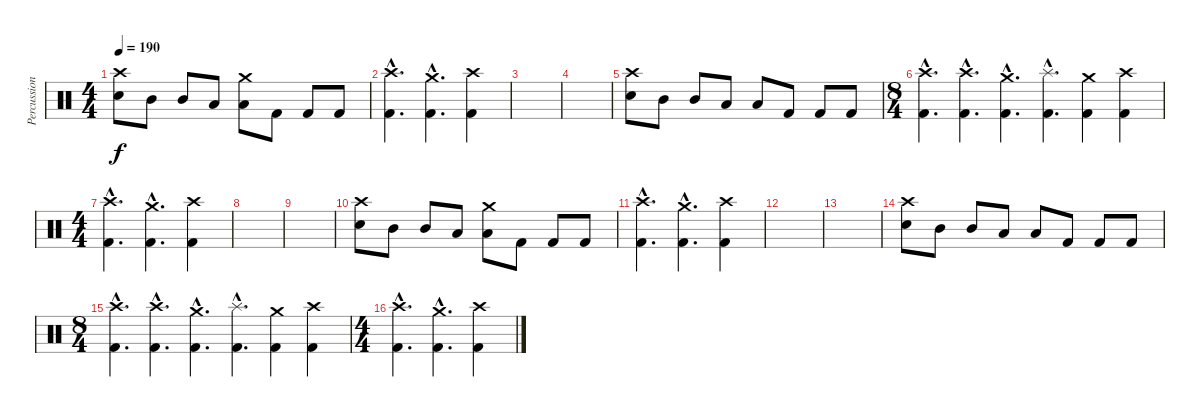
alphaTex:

\track ("Percussion" "Percussion") {instrument percussion}
\staff {score}
\articulation defaults
\ts (4 4)
\tempo 190
\clef neutral
\ks c
("Crash high (hit)" "Electric Snare (hit)").8{dy f} "Mid Tom (hit)".8 "Mid Tom (hit)".8 "Low Tom (hit)".8 ("Crash medium (hit)" "Low Tom (hit)").8 "Kick (hit) 2".8 "Kick (hit) 2".8 "Kick (hit) 2".8 |
("Crash high (hit)"{hac} "Kick (hit) 2"{hac}).4{d} ("Crash medium (hit)"{hac} "Kick (hit) 2"{hac}).4{d} ("Crash high (hit)" "Kick (hit) 2").4 |
|
|
("Crash high (hit)" "Electric Snare (hit)").8 "Mid Tom (hit)".8 "Mid Tom (hit)".8 "Low Tom (hit)".8 "Low Tom (hit)".8 "Kick (hit) 2".8 "Kick (hit) 2".8 "Kick (hit) 2".8 |
\ts (8 4)
("Crash high (hit)"{hac} "Kick (hit) 2"{hac}).4{d} ("Crash high (hit)"{hac} "Kick (hit) 2"{hac}).4{d} ("Crash medium (hit)"{hac} "Kick (hit) 2"{hac}).4{d} ("Splash (hit)"{hac} "Kick (hit) 2"{hac}).4{d} ("Crash medium (hit)" "Kick (hit) 2").4 ("Crash high (hit)" "Kick (hit) 2").4 |
\ts (4 4)
("Crash high (hit)"{hac} "Kick (hit) 2"{hac}).4{d} ("Crash medium (hit)"{hac} "Kick (hit) 2"{hac}).4{d} ("Crash high (hit)" "Kick (hit) 2").4 |
|
|
("Crash high (hit)" "Electric Snare (hit)").8 "Mid Tom (hit)".8 "Mid Tom (hit)".8 "Low Tom (hit)".8 ("Crash medium (hit)" "Low Tom (hit)").8 "Kick (hit) 2".8 "Kick (hit) 2".8 "Kick (hit) 2".8 |
("Crash high (hit)"{hac} "Kick (hit) 2"{hac}).4{d} ("Crash medium (hit)"{hac} "Kick (hit) 2"{hac}).4{d} ("Crash high (hit)" "Kick (hit) 2").4 |
|
|
("Crash high (hit)" "Electric Snare (hit)").8 "Mid Tom (hit)".8 "Mid Tom (hit)".8 "Low Tom (hit)".8 "Low Tom (hit)".8 "Kick (hit) 2".8 "Kick (hit) 2".8 "Kick (hit) 2".8 |
\ts (8 4)
("Crash high (hit)"{hac} "Kick (hit) 2"{hac}).4{d} ("Crash high (hit)"{hac} "Kick (hit) 2"{hac}).4{d} ("Crash medium (hit)"{hac} "Kick (hit) 2"{hac}).4{d} ("Splash (hit)"{hac} "Kick (hit) 2"{hac}).4{d} ("Crash medium (hit)" "Kick (hit) 2").4 ("Crash high (hit)" "Kick (hit) 2").4 |
\ts (4 4)
("Crash high (hit)"{hac} "Kick (hit) 2"{hac}).4{d} ("Crash medium (hit)"{hac} "Kick (hit) 2"{hac}).4{d} ("Crash high (hit)" "Kick (hit) 2").4
